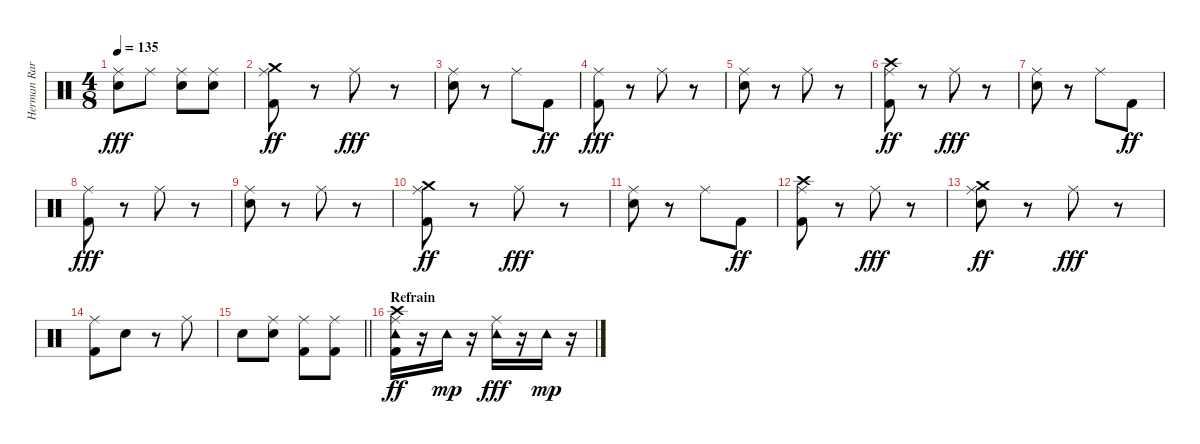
\track ("Herman Rarebell" "Herman Rar") {instrument percussion}
\staff {score}
\articulation defaults
\ts (4 8)
\tempo 135
\clef neutral
\ks c
("Snare (hit) 2" "Ride (middle)").8{dy fff} "Ride (middle)".8 ("Snare (hit) 2" "Ride (middle)").8 ("Snare (hit) 2" "Ride (middle)").8 |
("Kick (hit) 2" "Ride (middle)" "Crash medium (hit)").8{dy ff} r.8 "Ride (middle)".8{dy fff} r.8 |
("Snare (hit) 2" "Ride (middle)").8 r.8 "Ride (middle)".8 "Kick (hit) 2".8{dy ff} |
("Kick (hit) 2" "Ride (middle)").8{dy fff} r.8 "Ride (middle)".8 r.8 |
("Snare (hit) 2" "Ride (middle)").8 r.8 "Ride (middle)".8 r.8 |
("Kick (hit) 2" "Ride (middle)" "Crash high (hit)").8{dy ff} r.8 "Ride (middle)".8{dy fff} r.8 |
("Snare (hit) 2" "Ride (middle)").8 r.8 "Ride (middle)".8 "Kick (hit) 2".8{dy ff} |
("Kick (hit) 2" "Ride (middle)").8{dy fff} r.8 "Ride (middle)".8 r.8 |
("Snare (hit) 2" "Ride (middle)").8 r.8 "Ride (middle)".8 r.8 |
("Kick (hit) 2" "Ride (middle)" "Crash medium (hit)").8{dy ff} r.8 "Ride (middle)".8{dy fff} r.8 |
("Snare (hit) 2" "Ride (middle)").8 r.8 "Ride (middle)".8 "Kick (hit) 2".8{dy ff} |
("Kick (hit) 2" "Ride (middle)" "Crash high (hit)").8 r.8 "Ride (middle)".8{dy fff} r.8 |
("Snare (hit) 2" "Ride (middle)" "Crash medium (hit)").8{dy ff} r.8 "Ride (middle)".8{dy fff} r.8 |
("Kick (hit) 2" "Ride (middle)").8 "Snare (hit) 2".8 r.8 "Ride (middle)".8 |
\barLineRight lightlight "Snare (hit) 2".8
("Snare (hit) 2" "Ride (middle)").8 ("Kick (hit) 2" "Ride (middle)").8 ("Kick (hit) 2" "Ride (middle)").8 |
\section ("" "Refrain")
("Kick (hit) 2" "Ride (middle)" "Tambourine (hit)" "Crash high (hit)").16{dy ff} r.16 "Tambourine (hit)".16{dy mp} r.16 ("Ride (middle)" "Tambourine (hit)").16{dy fff} r.16 "Tambourine (hit)".16{dy mp} r.16
